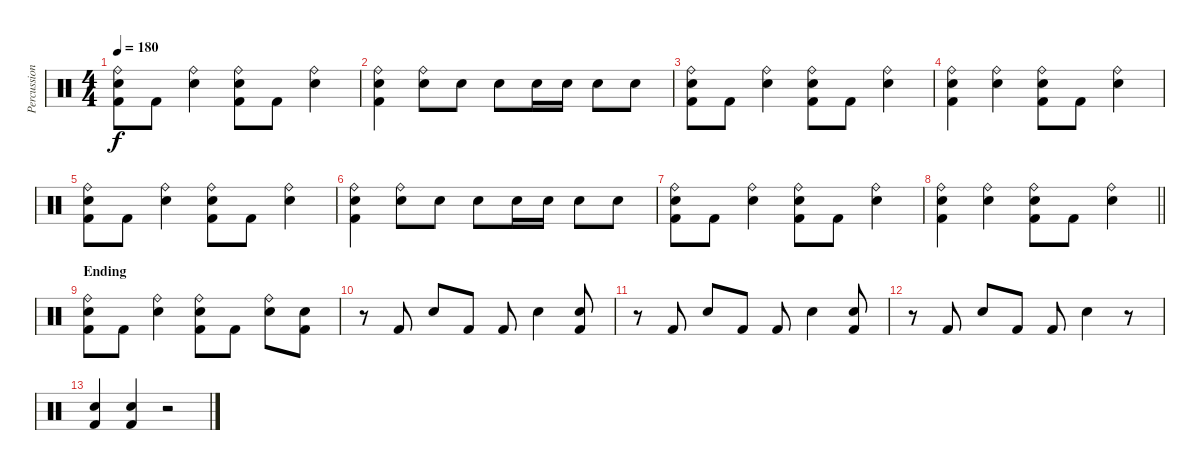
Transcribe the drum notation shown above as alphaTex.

\track ("Percussion" "Percussion") {instrument percussion}
\staff {score}
\articulation defaults
\ts (4 4)
\tempo 180
\clef neutral
\ks c
("Ride (bell)" "Snare (hit) 2" "Kick (hit) 2").8{dy f} "Kick (hit) 2".8 ("Ride (bell)" "Snare (hit) 2").4 ("Ride (bell)" "Snare (hit) 2" "Kick (hit) 2").8 "Kick (hit) 2".8 ("Ride (bell)" "Snare (hit) 2").4 |
("Ride (bell)" "Snare (hit) 2" "Kick (hit) 2").4 ("Ride (bell)" "Snare (hit) 2").8 "Snare (hit) 2".8 "Snare (hit) 2".8 "Snare (hit) 2".16 "Snare (hit) 2".16 "Snare (hit) 2".8 "Snare (hit) 2".8 |
("Ride (bell)" "Snare (hit) 2" "Kick (hit) 2").8 "Kick (hit) 2".8 ("Ride (bell)" "Snare (hit) 2").4 ("Ride (bell)" "Snare (hit) 2" "Kick (hit) 2").8 "Kick (hit) 2".8 ("Ride (bell)" "Snare (hit) 2").4 |
("Ride (bell)" "Snare (hit) 2" "Kick (hit) 2").4 ("Ride (bell)" "Snare (hit) 2").4 ("Ride (bell)" "Snare (hit) 2" "Kick (hit) 2").8 "Kick (hit) 2".8 ("Ride (bell)" "Snare (hit) 2").4 |
("Ride (bell)" "Snare (hit) 2" "Kick (hit) 2").8 "Kick (hit) 2".8 ("Ride (bell)" "Snare (hit) 2").4 ("Ride (bell)" "Snare (hit) 2" "Kick (hit) 2").8 "Kick (hit) 2".8 ("Ride (bell)" "Snare (hit) 2").4 |
("Ride (bell)" "Snare (hit) 2" "Kick (hit) 2").4 ("Ride (bell)" "Snare (hit) 2").8 "Snare (hit) 2".8 "Snare (hit) 2".8 "Snare (hit) 2".16 "Snare (hit) 2".16 "Snare (hit) 2".8 "Snare (hit) 2".8 |
("Ride (bell)" "Snare (hit) 2" "Kick (hit) 2").8 "Kick (hit) 2".8 ("Ride (bell)" "Snare (hit) 2").4 ("Ride (bell)" "Snare (hit) 2" "Kick (hit) 2").8 "Kick (hit) 2".8 ("Ride (bell)" "Snare (hit) 2").4 |
\barLineRight lightlight
("Ride (bell)" "Snare (hit) 2" "Kick (hit) 2").4 ("Ride (bell)" "Snare (hit) 2").4 ("Ride (bell)" "Snare (hit) 2" "Kick (hit) 2").8 "Kick (hit) 2".8 ("Ride (bell)" "Snare (hit) 2").4 |
\section ("" "Ending")
("Ride (bell)" "Snare (hit) 2" "Kick (hit) 2").8 "Kick (hit) 2".8 ("Ride (bell)" "Snare (hit) 2").4 ("Ride (bell)" "Snare (hit) 2" "Kick (hit) 2").8 "Kick (hit) 2".8 ("Ride (bell)" "Snare (hit) 2").8 ("Snare (hit) 2" "Kick (hit) 2").8 |
r.8 "Kick (hit) 2".8 "Snare (hit) 2".8 "Kick (hit) 2".8 "Kick (hit) 2".8 "Snare (hit) 2".4 ("Snare (hit) 2" "Kick (hit) 2").8 |
r.8 "Kick (hit) 2".8 "Snare (hit) 2".8 "Kick (hit) 2".8 "Kick (hit) 2".8 "Snare (hit) 2".4 ("Snare (hit) 2" "Kick (hit) 2").8 |
r.8 "Kick (hit) 2".8 "Snare (hit) 2".8 "Kick (hit) 2".8 "Kick (hit) 2".8 "Snare (hit) 2".4 r.8 |
("Snare (hit) 2" "Kick (hit) 2").4 ("Snare (hit) 2" "Kick (hit) 2").4 r.2
